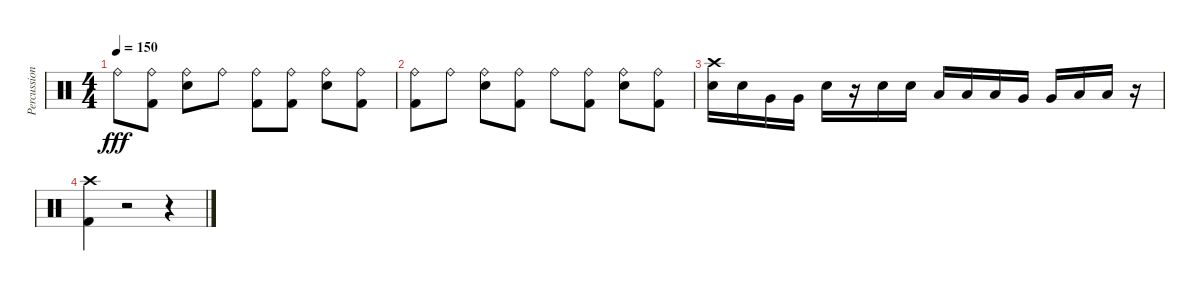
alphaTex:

\track ("Percussion" "Percussion") {instrument percussion}
\staff {score}
\articulation defaults
\ts (4 4)
\tempo 150
\clef neutral
\ks c "Ride (bell)".8{dy fff}
("Ride (bell)" "Kick (hit) 2").8 ("Ride (bell)" "Snare (hit) 2").8 "Ride (bell)".8 ("Ride (bell)" "Kick (hit) 2").8 ("Ride (bell)" "Kick (hit) 2").8 ("Ride (bell)" "Snare (hit) 2").8 ("Ride (bell)" "Kick (hit) 2").8 |
("Kick (hit) 2" "Ride (bell)").8 "Ride (bell)".8 ("Snare (hit) 2" "Ride (bell)").8 ("Kick (hit) 2" "Ride (bell)").8 "Ride (bell)".8 ("Kick (hit) 2" "Ride (bell)").8 ("Snare (hit) 2" "Ride (bell)").8 ("Kick (hit) 2" "Ride (bell)").8 |
("Snare (hit) 2" "Crash high (hit)").16 "Snare (hit) 2".16 "Very Low Tom (hit)".16 "Very Low Tom (hit)".16 "Snare (hit) 2".16 r.16 "Snare (hit) 2".16 "Snare (hit) 2".16 "Low Tom (hit)".16 "Low Tom (hit)".16 "Low Tom (hit)".16 "Very Low Tom (hit)".16 "Very Low Tom (hit)".16 "Low Floor Tom (hit)".16 "Low Floor Tom (hit)".16 r.16 |
("Kick (hit) 2" "Crash high (hit)").4 r.2 r.4
